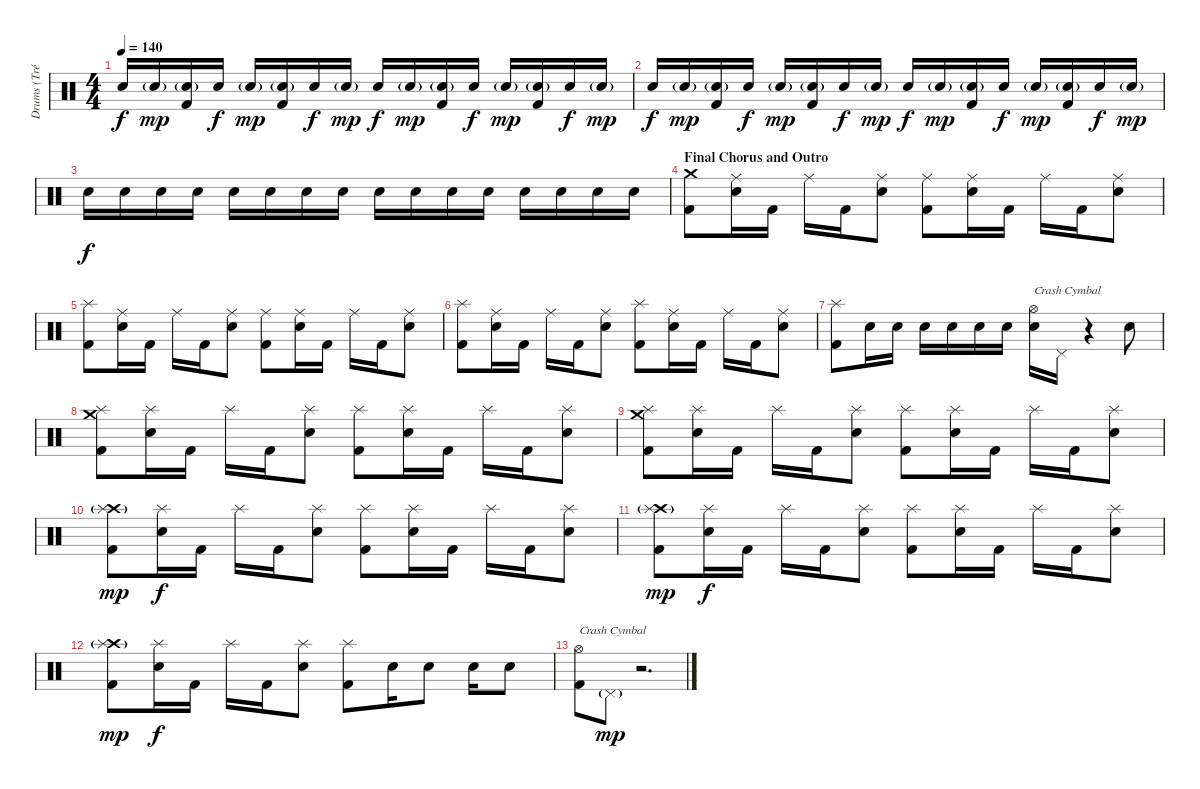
\track ("Drums (Tré)" "Drums (Tré") {instrument percussion}
\staff {score}
\articulation defaults
\ts (4 4)
\tempo 140
\clef neutral
\ks c "Electric Snare (hit)".16{dy f} "Electric Snare (hit)"{g}.16{dy mp}
("Electric Snare (hit)"{g} "Kick (hit) 2").16 "Electric Snare (hit)".16{dy f} "Electric Snare (hit)"{g}.16{dy mp} ("Electric Snare (hit)"{g} "Kick (hit) 2").16 "Electric Snare (hit)".16{dy f} "Electric Snare (hit)"{g}.16{dy mp} "Electric Snare (hit)".16{dy f} "Electric Snare (hit)"{g}.16{dy mp} ("Electric Snare (hit)"{g} "Kick (hit) 2").16 "Electric Snare (hit)".16{dy f} "Electric Snare (hit)"{g}.16{dy mp} ("Electric Snare (hit)"{g} "Kick (hit) 2").16 "Electric Snare (hit)".16{dy f} "Electric Snare (hit)"{g}.16{dy mp} |
"Electric Snare (hit)".16{dy f} "Electric Snare (hit)"{g}.16{dy mp} ("Electric Snare (hit)"{g} "Kick (hit) 2").16 "Electric Snare (hit)".16{dy f} "Electric Snare (hit)"{g}.16{dy mp} ("Electric Snare (hit)"{g} "Kick (hit) 2").16 "Electric Snare (hit)".16{dy f} "Electric Snare (hit)"{g}.16{dy mp} "Electric Snare (hit)".16{dy f} "Electric Snare (hit)"{g}.16{dy mp} ("Electric Snare (hit)"{g} "Kick (hit) 2").16 "Electric Snare (hit)".16{dy f} "Electric Snare (hit)"{g}.16{dy mp} ("Electric Snare (hit)"{g} "Kick (hit) 2").16 "Electric Snare (hit)".16{dy f} "Electric Snare (hit)"{g}.16{dy mp} |
"Electric Snare (hit)".16{dy f} "Electric Snare (hit)".16 "Electric Snare (hit)".16 "Electric Snare (hit)".16 "Electric Snare (hit)".16 "Electric Snare (hit)".16 "Electric Snare (hit)".16 "Electric Snare (hit)".16 "Electric Snare (hit)".16 "Electric Snare (hit)".16 "Electric Snare (hit)".16 "Electric Snare (hit)".16 "Electric Snare (hit)".16 "Electric Snare (hit)".16 "Electric Snare (hit)".16 "Electric Snare (hit)".16 |
\section ("" "Final Chorus and Outro")
("Crash medium (hit)" "Kick (hit) 2").8 ("Ride (middle)" "Electric Snare (hit)").16 "Kick (hit) 2".16 "Ride (middle)".16 "Kick (hit) 2".16 ("Ride (middle)" "Electric Snare (hit)").8 ("Ride (middle)" "Kick (hit) 2").8 ("Ride (middle)" "Electric Snare (hit)").16 "Kick (hit) 2".16 "Ride (middle)".16 "Kick (hit) 2".16 ("Ride (middle)" "Electric Snare (hit)").8 |
("Splash (hit)" "Kick (hit) 2").8 ("Ride (middle)" "Electric Snare (hit)").16 "Kick (hit) 2".16 "Ride (middle)".16 "Kick (hit) 2".16 ("Ride (middle)" "Electric Snare (hit)").8 ("Ride (middle)" "Kick (hit) 2").8 ("Ride (middle)" "Electric Snare (hit)").16 "Kick (hit) 2".16 "Ride (middle)".16 "Kick (hit) 2".16 ("Ride (middle)" "Electric Snare (hit)").8 |
("Splash (hit)" "Kick (hit) 2").8 ("Ride (middle)" "Electric Snare (hit)").16 "Kick (hit) 2".16 "Ride (middle)".16 "Kick (hit) 2".16 ("Ride (middle)" "Electric Snare (hit)").8 ("Splash (hit)" "Kick (hit) 2").8 ("Ride (middle)" "Electric Snare (hit)").16 "Kick (hit) 2".16 "Ride (middle)".16 "Kick (hit) 2".16 ("Ride (middle)" "Electric Snare (hit)").8 |
("Splash (hit)" "Kick (hit) 2").8 "Electric Snare (hit)".16 "Electric Snare (hit)".16 "Electric Snare (hit)".16 "Electric Snare (hit)".16 "Electric Snare (hit)".16 "Electric Snare (hit)".16 ("Hi-Hat (open)" "Electric Snare (hit)").16{txt "Crash Cymbal"} "Pedal Hi-Hat (hit)".16 r.4 "Electric Snare (hit)".8 |
("Crash medium (hit)" "Splash (hit)" "Kick (hit) 2").8 ("Splash (hit)" "Electric Snare (hit)").16 "Kick (hit) 2".16 "Splash (hit)".16 "Kick (hit) 2".16 ("Splash (hit)" "Electric Snare (hit)").8 ("Splash (hit)" "Kick (hit) 2").8 ("Splash (hit)" "Electric Snare (hit)").16 "Kick (hit) 2".16 "Splash (hit)".16 "Kick (hit) 2".16 ("Splash (hit)" "Electric Snare (hit)").8 |
("Crash medium (hit)" "Splash (hit)" "Kick (hit) 2").8 ("Splash (hit)" "Electric Snare (hit)").16 "Kick (hit) 2".16 "Splash (hit)".16 "Kick (hit) 2".16 ("Splash (hit)" "Electric Snare (hit)").8 ("Splash (hit)" "Kick (hit) 2").8 ("Splash (hit)" "Electric Snare (hit)").16 "Kick (hit) 2".16 "Splash (hit)".16 "Kick (hit) 2".16 ("Splash (hit)" "Electric Snare (hit)").8 |
("Crash high (hit)"{g} "Splash (hit)" "Kick (hit) 2").8{dy mp} ("Splash (hit)" "Electric Snare (hit)").16{dy f} "Kick (hit) 2".16 "Splash (hit)".16 "Kick (hit) 2".16 ("Splash (hit)" "Electric Snare (hit)").8 ("Splash (hit)" "Kick (hit) 2").8 ("Splash (hit)" "Electric Snare (hit)").16 "Kick (hit) 2".16 "Splash (hit)".16 "Kick (hit) 2".16 ("Splash (hit)" "Electric Snare (hit)").8 |
("Crash high (hit)"{g} "Splash (hit)" "Kick (hit) 2").8{dy mp} ("Splash (hit)" "Electric Snare (hit)").16{dy f} "Kick (hit) 2".16 "Splash (hit)".16 "Kick (hit) 2".16 ("Splash (hit)" "Electric Snare (hit)").8 ("Splash (hit)" "Kick (hit) 2").8 ("Splash (hit)" "Electric Snare (hit)").16 "Kick (hit) 2".16 "Splash (hit)".16 "Kick (hit) 2".16 ("Splash (hit)" "Electric Snare (hit)").8 |
("Crash high (hit)"{g} "Splash (hit)" "Kick (hit) 2").8{dy mp} ("Splash (hit)" "Electric Snare (hit)").16{dy f} "Kick (hit) 2".16 "Splash (hit)".16 "Kick (hit) 2".16 ("Splash (hit)" "Electric Snare (hit)").8 ("Splash (hit)" "Kick (hit) 2").8 "Electric Snare (hit)".16 "Electric Snare (hit)".8 "Electric Snare (hit)".16 "Electric Snare (hit)".8 |
("Hi-Hat (open)" "Kick (hit) 2").8{txt "Crash Cymbal"} "Pedal Hi-Hat (hit)"{g}.8{dy mp} r.2{d}
